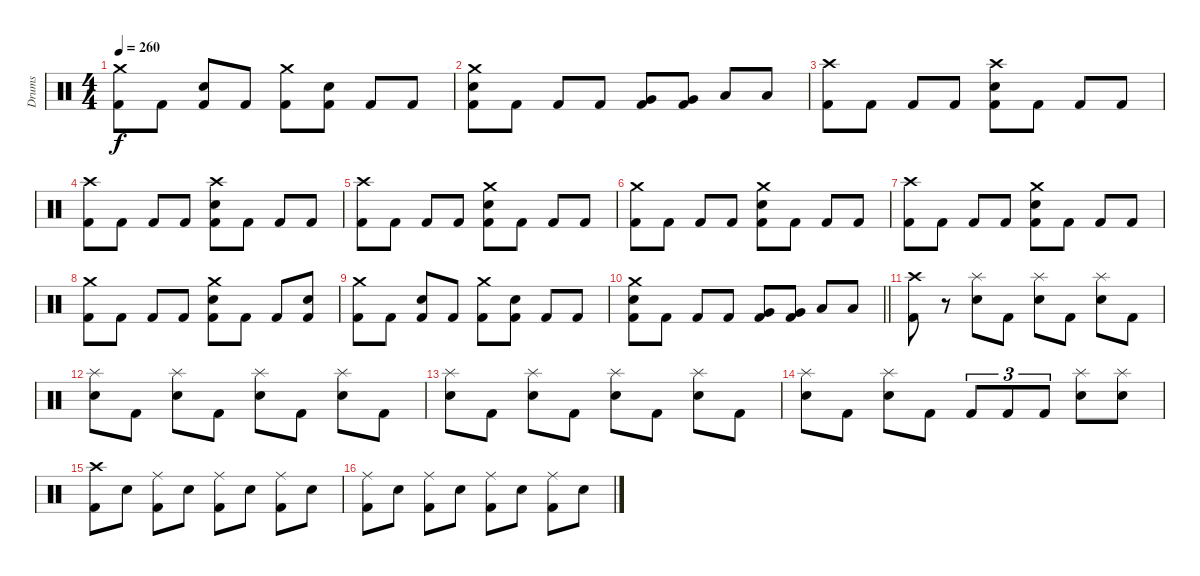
\track ("Drums" "Drums") {instrument percussion}
\staff {score}
\articulation defaults
\ts (4 4)
\tempo 260
\clef neutral
\ks c
("Crash medium (hit)" "Kick (hit) 2").8{dy f} "Kick (hit) 2".8 ("Electric Snare (hit)" "Kick (hit) 2").8 "Kick (hit) 2".8 ("Crash medium (hit)" "Kick (hit) 2").8 ("Electric Snare (hit)" "Kick (hit) 2").8 "Kick (hit) 2".8 "Kick (hit) 2".8 |
("Crash medium (hit)" "Electric Snare (hit)" "Kick (hit) 2").8 "Kick (hit) 2".8 "Kick (hit) 2".8 "Kick (hit) 2".8 ("Very Low Tom (hit)" "Kick (hit) 2").8 ("Very Low Tom (hit)" "Kick (hit) 2").8 "Low Floor Tom (hit)".8 "Low Floor Tom (hit)".8 |
("Crash high (hit)" "Kick (hit) 2").8 "Kick (hit) 2".8 "Kick (hit) 2".8 "Kick (hit) 2".8 ("Crash high (hit)" "Electric Snare (hit)" "Kick (hit) 2").8 "Kick (hit) 2".8 "Kick (hit) 2".8 "Kick (hit) 2".8 |
("Crash high (hit)" "Kick (hit) 2").8 "Kick (hit) 2".8 "Kick (hit) 2".8 "Kick (hit) 2".8 ("Crash high (hit)" "Electric Snare (hit)" "Kick (hit) 2").8 "Kick (hit) 2".8 "Kick (hit) 2".8 "Kick (hit) 2".8 |
("Crash high (hit)" "Kick (hit) 2").8 "Kick (hit) 2".8 "Kick (hit) 2".8 "Kick (hit) 2".8 ("Crash medium (hit)" "Electric Snare (hit)" "Kick (hit) 2").8 "Kick (hit) 2".8 "Kick (hit) 2".8 "Kick (hit) 2".8 |
("Crash medium (hit)" "Kick (hit) 2").8 "Kick (hit) 2".8 "Kick (hit) 2".8 "Kick (hit) 2".8 ("Crash medium (hit)" "Electric Snare (hit)" "Kick (hit) 2").8 "Kick (hit) 2".8 "Kick (hit) 2".8 "Kick (hit) 2".8 |
("Crash high (hit)" "Kick (hit) 2").8 "Kick (hit) 2".8 "Kick (hit) 2".8 "Kick (hit) 2".8 ("Crash medium (hit)" "Electric Snare (hit)" "Kick (hit) 2").8 "Kick (hit) 2".8 "Kick (hit) 2".8 "Kick (hit) 2".8 |
("Crash medium (hit)" "Kick (hit) 2").8 "Kick (hit) 2".8 "Kick (hit) 2".8 "Kick (hit) 2".8 ("Crash medium (hit)" "Electric Snare (hit)" "Kick (hit) 2").8 "Kick (hit) 2".8 "Kick (hit) 2".8 ("Electric Snare (hit)" "Kick (hit) 2").8 |
("Crash medium (hit)" "Kick (hit) 2").8 "Kick (hit) 2".8 ("Electric Snare (hit)" "Kick (hit) 2").8 "Kick (hit) 2".8 ("Crash medium (hit)" "Kick (hit) 2").8 ("Electric Snare (hit)" "Kick (hit) 2").8 "Kick (hit) 2".8 "Kick (hit) 2".8 |
\barLineRight lightlight
("Crash medium (hit)" "Electric Snare (hit)" "Kick (hit) 2").8 "Kick (hit) 2".8 "Kick (hit) 2".8 "Kick (hit) 2".8 ("Very Low Tom (hit)" "Kick (hit) 2").8 ("Very Low Tom (hit)" "Kick (hit) 2").8 "Low Floor Tom (hit)".8 "Low Floor Tom (hit)".8 |
("Crash high (hit)" "Kick (hit) 2").8 r.8 ("Splash (hit)" "Electric Snare (hit)").8 "Kick (hit) 2".8 ("Splash (hit)" "Electric Snare (hit)").8 "Kick (hit) 2".8 ("Splash (hit)" "Electric Snare (hit)").8 "Kick (hit) 2".8 |
("Splash (hit)" "Electric Snare (hit)").8 "Kick (hit) 2".8 ("Splash (hit)" "Electric Snare (hit)").8 "Kick (hit) 2".8 ("Splash (hit)" "Electric Snare (hit)").8 "Kick (hit) 2".8 ("Splash (hit)" "Electric Snare (hit)").8 "Kick (hit) 2".8 |
("Splash (hit)" "Electric Snare (hit)").8 "Kick (hit) 2".8 ("Splash (hit)" "Electric Snare (hit)").8 "Kick (hit) 2".8 ("Splash (hit)" "Electric Snare (hit)").8 "Kick (hit) 2".8 ("Splash (hit)" "Electric Snare (hit)").8 "Kick (hit) 2".8 |
("Splash (hit)" "Electric Snare (hit)").8 "Kick (hit) 2".8 ("Splash (hit)" "Electric Snare (hit)").8 "Kick (hit) 2".8 "Kick (hit) 2".8{tu (3 2)} "Kick (hit) 2".8{tu (3 2)} "Kick (hit) 2".8{tu (3 2)} ("Splash (hit)" "Electric Snare (hit)").8 ("Splash (hit)" "Electric Snare (hit)").8 |
("Crash high (hit)" "Kick (hit) 2").8 "Electric Snare (hit)".8 ("Ride (middle)" "Kick (hit) 2").8 "Electric Snare (hit)".8 ("Ride (middle)" "Kick (hit) 2").8 "Electric Snare (hit)".8 ("Ride (middle)" "Kick (hit) 2").8 "Electric Snare (hit)".8 |
("Ride (middle)" "Kick (hit) 2").8 "Electric Snare (hit)".8 ("Ride (middle)" "Kick (hit) 2").8 "Electric Snare (hit)".8 ("Ride (middle)" "Kick (hit) 2").8 "Electric Snare (hit)".8 ("Ride (middle)" "Kick (hit) 2").8 "Electric Snare (hit)".8
